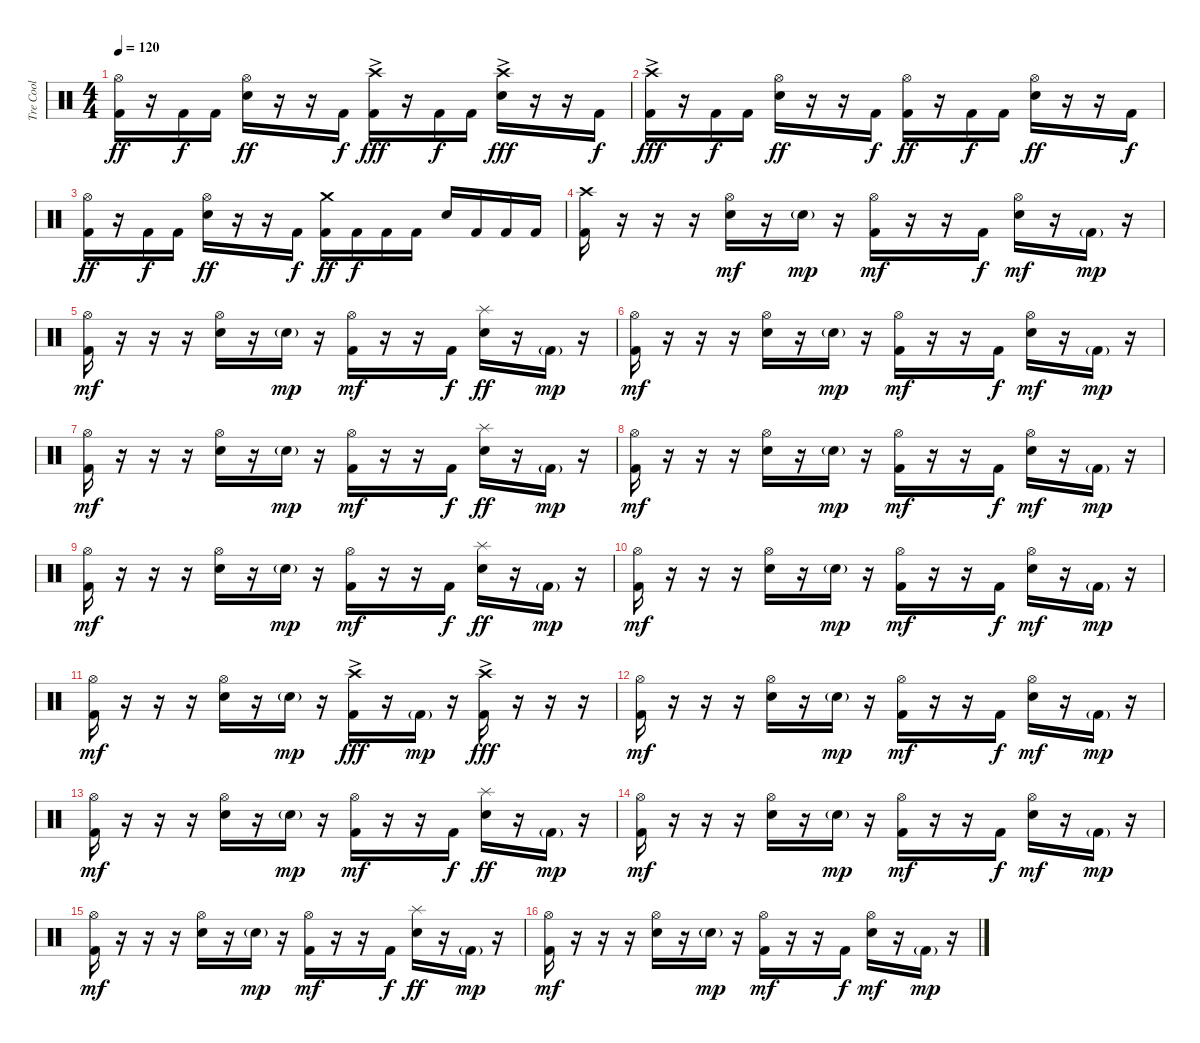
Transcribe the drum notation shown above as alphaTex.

\track ("Tre Cool" "Tre Cool") {instrument percussion}
\staff {score}
\articulation defaults
\ts (4 4)
\tempo 120
\clef neutral
\ks c
("Hi-Hat (open)" "Kick (hit) 2").16{dy ff} r.16 "Kick (hit) 2".16{dy f} "Kick (hit) 2".16 ("Hi-Hat (open)" "Electric Snare (hit)").16{dy ff} r.16 r.16 "Kick (hit) 2".16{dy f} ("Crash high (hit)"{ac} "Kick (hit) 2").16{dy fff} r.16 "Kick (hit) 2".16{dy f} "Kick (hit) 2".16 ("Crash high (hit)"{ac} "Electric Snare (hit)").16{dy fff} r.16 r.16 "Kick (hit) 2".16{dy f} |
("Crash high (hit)"{ac} "Kick (hit) 2").16{dy fff} r.16 "Kick (hit) 2".16{dy f} "Kick (hit) 2".16 ("Hi-Hat (open)" "Electric Snare (hit)").16{dy ff} r.16 r.16 "Kick (hit) 2".16{dy f} ("Hi-Hat (open)" "Kick (hit) 2").16{dy ff} r.16 "Kick (hit) 2".16{dy f} "Kick (hit) 2".16 ("Hi-Hat (open)" "Electric Snare (hit)").16{dy ff} r.16 r.16 "Kick (hit) 2".16{dy f} |
("Hi-Hat (open)" "Kick (hit) 2").16{dy ff} r.16 "Kick (hit) 2".16{dy f} "Kick (hit) 2".16 ("Hi-Hat (open)" "Electric Snare (hit)").16{dy ff} r.16 r.16 "Kick (hit) 2".16{dy f} ("Crash medium (hit)" "Kick (hit) 2").16{dy ff} "Kick (hit) 2".16{dy f} "Kick (hit) 2".16 "Kick (hit) 2".16 "Electric Snare (hit)".16 "Kick (hit) 2".16 "Kick (hit) 2".16 "Kick (hit) 2".16 |
("Crash high (hit)" "Kick (hit) 2").16 r.16 r.16 r.16 ("Hi-Hat (open)" "Electric Snare (hit)").16{dy mf} r.16 "Electric Snare (hit)"{g}.16{dy mp} r.16 ("Hi-Hat (open)" "Kick (hit) 2").16{dy mf} r.16 r.16 "Kick (hit) 2".16{dy f} ("Hi-Hat (open)" "Electric Snare (hit)").16{dy mf} r.16 "Kick (hit) 2"{g}.16{dy mp} r.16 |
("Hi-Hat (open)" "Kick (hit) 2").16{dy mf} r.16 r.16 r.16 ("Hi-Hat (open)" "Electric Snare (hit)").16 r.16 "Electric Snare (hit)"{g}.16{dy mp} r.16 ("Hi-Hat (open)" "Kick (hit) 2").16{dy mf} r.16 r.16 "Kick (hit) 2".16{dy f} ("Splash (hit)" "Electric Snare (hit)").16{dy ff} r.16 "Kick (hit) 2"{g}.16{dy mp} r.16 |
("Hi-Hat (open)" "Kick (hit) 2").16{dy mf} r.16 r.16 r.16 ("Hi-Hat (open)" "Electric Snare (hit)").16 r.16 "Electric Snare (hit)"{g}.16{dy mp} r.16 ("Hi-Hat (open)" "Kick (hit) 2").16{dy mf} r.16 r.16 "Kick (hit) 2".16{dy f} ("Hi-Hat (open)" "Electric Snare (hit)").16{dy mf} r.16 "Kick (hit) 2"{g}.16{dy mp} r.16 |
("Hi-Hat (open)" "Kick (hit) 2").16{dy mf} r.16 r.16 r.16 ("Hi-Hat (open)" "Electric Snare (hit)").16 r.16 "Electric Snare (hit)"{g}.16{dy mp} r.16 ("Hi-Hat (open)" "Kick (hit) 2").16{dy mf} r.16 r.16 "Kick (hit) 2".16{dy f} ("Splash (hit)" "Electric Snare (hit)").16{dy ff} r.16 "Kick (hit) 2"{g}.16{dy mp} r.16 |
("Hi-Hat (open)" "Kick (hit) 2").16{dy mf} r.16 r.16 r.16 ("Hi-Hat (open)" "Electric Snare (hit)").16 r.16 "Electric Snare (hit)"{g}.16{dy mp} r.16 ("Hi-Hat (open)" "Kick (hit) 2").16{dy mf} r.16 r.16 "Kick (hit) 2".16{dy f} ("Hi-Hat (open)" "Electric Snare (hit)").16{dy mf} r.16 "Kick (hit) 2"{g}.16{dy mp} r.16 |
("Hi-Hat (open)" "Kick (hit) 2").16{dy mf} r.16 r.16 r.16 ("Hi-Hat (open)" "Electric Snare (hit)").16 r.16 "Electric Snare (hit)"{g}.16{dy mp} r.16 ("Hi-Hat (open)" "Kick (hit) 2").16{dy mf} r.16 r.16 "Kick (hit) 2".16{dy f} ("Splash (hit)" "Electric Snare (hit)").16{dy ff} r.16 "Kick (hit) 2"{g}.16{dy mp} r.16 |
("Hi-Hat (open)" "Kick (hit) 2").16{dy mf} r.16 r.16 r.16 ("Hi-Hat (open)" "Electric Snare (hit)").16 r.16 "Electric Snare (hit)"{g}.16{dy mp} r.16 ("Hi-Hat (open)" "Kick (hit) 2").16{dy mf} r.16 r.16 "Kick (hit) 2".16{dy f} ("Hi-Hat (open)" "Electric Snare (hit)").16{dy mf} r.16 "Kick (hit) 2"{g}.16{dy mp} r.16 |
("Hi-Hat (open)" "Kick (hit) 2").16{dy mf} r.16 r.16 r.16 ("Hi-Hat (open)" "Electric Snare (hit)").16 r.16 "Electric Snare (hit)"{g}.16{dy mp} r.16 ("Crash high (hit)"{ac} "Kick (hit) 2"{ac}).16{dy fff} r.16 "Kick (hit) 2"{g}.16{dy mp} r.16 ("Crash high (hit)"{ac} "Kick (hit) 2"{ac}).16{dy fff} r.16 r.16 r.16 |
("Hi-Hat (open)" "Kick (hit) 2").16{dy mf} r.16 r.16 r.16 ("Hi-Hat (open)" "Electric Snare (hit)").16 r.16 "Electric Snare (hit)"{g}.16{dy mp} r.16 ("Hi-Hat (open)" "Kick (hit) 2").16{dy mf} r.16 r.16 "Kick (hit) 2".16{dy f} ("Hi-Hat (open)" "Electric Snare (hit)").16{dy mf} r.16 "Kick (hit) 2"{g}.16{dy mp} r.16 |
("Hi-Hat (open)" "Kick (hit) 2").16{dy mf} r.16 r.16 r.16 ("Hi-Hat (open)" "Electric Snare (hit)").16 r.16 "Electric Snare (hit)"{g}.16{dy mp} r.16 ("Hi-Hat (open)" "Kick (hit) 2").16{dy mf} r.16 r.16 "Kick (hit) 2".16{dy f} ("Splash (hit)" "Electric Snare (hit)").16{dy ff} r.16 "Kick (hit) 2"{g}.16{dy mp} r.16 |
("Hi-Hat (open)" "Kick (hit) 2").16{dy mf} r.16 r.16 r.16 ("Hi-Hat (open)" "Electric Snare (hit)").16 r.16 "Electric Snare (hit)"{g}.16{dy mp} r.16 ("Hi-Hat (open)" "Kick (hit) 2").16{dy mf} r.16 r.16 "Kick (hit) 2".16{dy f} ("Hi-Hat (open)" "Electric Snare (hit)").16{dy mf} r.16 "Kick (hit) 2"{g}.16{dy mp} r.16 |
("Hi-Hat (open)" "Kick (hit) 2").16{dy mf} r.16 r.16 r.16 ("Hi-Hat (open)" "Electric Snare (hit)").16 r.16 "Electric Snare (hit)"{g}.16{dy mp} r.16 ("Hi-Hat (open)" "Kick (hit) 2").16{dy mf} r.16 r.16 "Kick (hit) 2".16{dy f} ("Splash (hit)" "Electric Snare (hit)").16{dy ff} r.16 "Kick (hit) 2"{g}.16{dy mp} r.16 |
("Hi-Hat (open)" "Kick (hit) 2").16{dy mf} r.16 r.16 r.16 ("Hi-Hat (open)" "Electric Snare (hit)").16 r.16 "Electric Snare (hit)"{g}.16{dy mp} r.16 ("Hi-Hat (open)" "Kick (hit) 2").16{dy mf} r.16 r.16 "Kick (hit) 2".16{dy f} ("Hi-Hat (open)" "Electric Snare (hit)").16{dy mf} r.16 "Kick (hit) 2"{g}.16{dy mp} r.16
